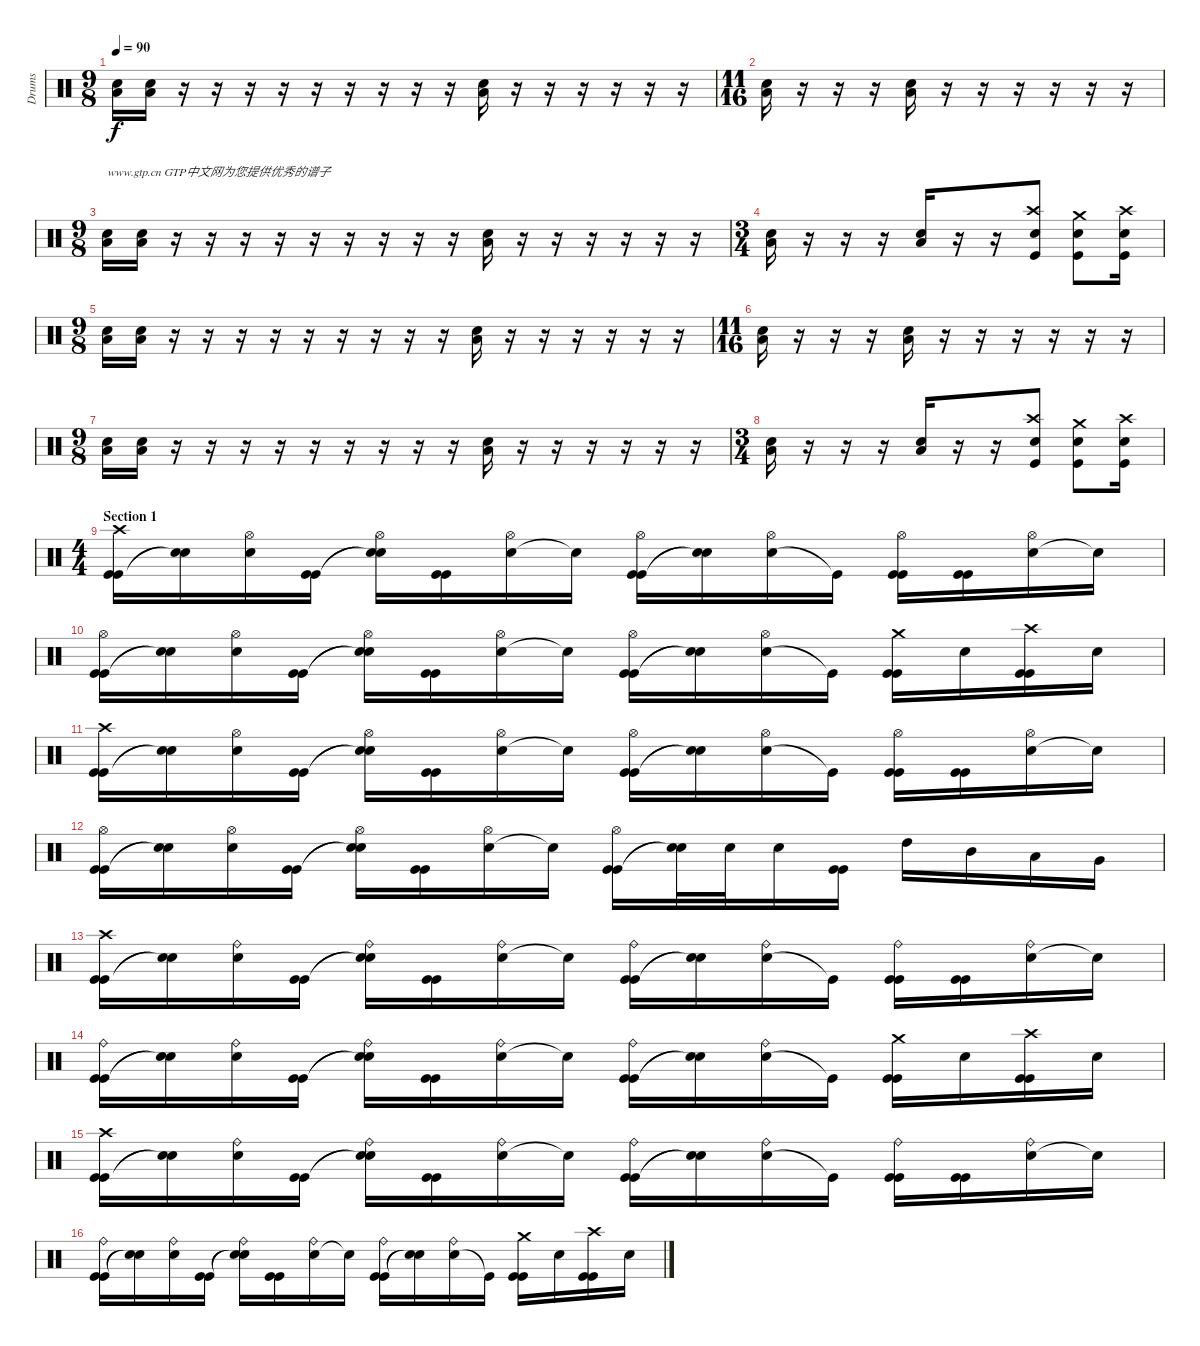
\track ("Drums" "Drums") {instrument percussion}
\staff {score}
\articulation defaults
\ts (9 8)
\tempo 90
\clef neutral
\ks c
("Snare (hit) 2" "Low Floor Tom (hit)").16{dy f} ("Snare (hit) 2" "Low Floor Tom (hit)").16 r.16 r.16 r.16 r.16 r.16 r.16 r.16 r.16 r.16 ("Snare (hit) 2" "Low Floor Tom (hit)").16 r.16 r.16 r.16 r.16 r.16 r.16 |
\ts (11 16)
("Snare (hit) 2" "Low Floor Tom (hit)").16 r.16 r.16 r.16 ("Snare (hit) 2" "Low Floor Tom (hit)").16 r.16 r.16 r.16 r.16 r.16 r.16 |
\ts (9 8)
("Snare (hit) 2" "Low Floor Tom (hit)").16{txt "www.gtp.cn GTP中文网为您提供优秀的谱子"} ("Snare (hit) 2" "Low Floor Tom (hit)").16 r.16 r.16 r.16 r.16 r.16 r.16 r.16 r.16 r.16 ("Snare (hit) 2" "Low Floor Tom (hit)").16 r.16 r.16 r.16 r.16 r.16 r.16 |
\ts (3 4)
("Low Floor Tom (hit)" "Snare (hit) 2").16 r.16 r.16 r.16 ("Low Floor Tom (hit)" "Snare (hit) 2").16 r.16 r.16 ("Crash high (hit)" "Snare (hit) 2" "Kick (hit)").8 ("Crash medium (hit)" "Snare (hit) 2" "Kick (hit)").8 ("Crash high (hit)" "Snare (hit) 2" "Kick (hit)").16 |
\ts (9 8)
("Snare (hit) 2" "Low Floor Tom (hit)").16 ("Snare (hit) 2" "Low Floor Tom (hit)").16 r.16 r.16 r.16 r.16 r.16 r.16 r.16 r.16 r.16 ("Snare (hit) 2" "Low Floor Tom (hit)").16 r.16 r.16 r.16 r.16 r.16 r.16 |
\ts (11 16)
("Snare (hit) 2" "Low Floor Tom (hit)").16 r.16 r.16 r.16 ("Snare (hit) 2" "Low Floor Tom (hit)").16 r.16 r.16 r.16 r.16 r.16 r.16 |
\ts (9 8)
("Snare (hit) 2" "Low Floor Tom (hit)").16 ("Snare (hit) 2" "Low Floor Tom (hit)").16 r.16 r.16 r.16 r.16 r.16 r.16 r.16 r.16 r.16 ("Snare (hit) 2" "Low Floor Tom (hit)").16 r.16 r.16 r.16 r.16 r.16 r.16 |
\ts (3 4)
("Low Floor Tom (hit)" "Snare (hit) 2").16 r.16 r.16 r.16 ("Low Floor Tom (hit)" "Snare (hit) 2").16 r.16 r.16 ("Crash high (hit)" "Snare (hit) 2" "Kick (hit)").8 ("Crash medium (hit)" "Snare (hit) 2" "Kick (hit)").8 ("Crash high (hit)" "Snare (hit) 2" "Kick (hit)").16 |
\ts (4 4)
\section ("" "Section 1")
("Kick (hit)" "Kick (hit)" "Crash high (hit)").16 ("Snare (hit) 2"{t} "Snare (hit)"{t}).16 ("Snare (hit) 2" "Hi-Hat (open)").16 ("Kick (hit)" "Kick (hit)").16 ("Snare (hit)"{t} "Snare (hit) 2"{t} "Hi-Hat (open)").16 ("Kick (hit)" "Kick (hit)").16 ("Snare (hit) 2" "Hi-Hat (open)").16 "Snare (hit)"{t}.16 ("Kick (hit)" "Kick (hit)" "Hi-Hat (open)").16 ("Snare (hit) 2"{t} "Snare (hit)"{t}).16 ("Snare (hit) 2" "Hi-Hat (open)").16 "Kick (hit)"{t}.16 ("Kick (hit)" "Kick (hit)" "Hi-Hat (open)").16 ("Kick (hit)" "Kick (hit)").16 ("Snare (hit) 2" "Hi-Hat (open)").16 "Snare (hit)"{t}.16 |
("Kick (hit)" "Kick (hit)" "Hi-Hat (open)").16 ("Snare (hit) 2"{t} "Snare (hit)"{t}).16 ("Snare (hit) 2" "Hi-Hat (open)").16 ("Kick (hit)" "Kick (hit)").16 ("Snare (hit)"{t} "Snare (hit) 2"{t} "Hi-Hat (open)").16 ("Kick (hit)" "Kick (hit)").16 ("Snare (hit) 2" "Hi-Hat (open)").16 "Snare (hit)"{t}.16 ("Kick (hit)" "Kick (hit)" "Hi-Hat (open)").16 ("Snare (hit) 2"{t} "Snare (hit)"{t}).16 ("Snare (hit) 2" "Hi-Hat (open)").16 "Kick (hit)"{t}.16 ("Kick (hit)" "Kick (hit)" "Crash medium (hit)").16 "Snare (hit) 2".16 ("Kick (hit)" "Kick (hit)" "Crash high (hit)").16 "Snare (hit) 2".16 |
("Kick (hit)" "Kick (hit)" "Crash high (hit)").16 ("Snare (hit) 2"{t} "Snare (hit)"{t}).16 ("Snare (hit) 2" "Hi-Hat (open)").16 ("Kick (hit)" "Kick (hit)").16 ("Snare (hit)"{t} "Snare (hit) 2"{t} "Hi-Hat (open)").16 ("Kick (hit)" "Kick (hit)").16 ("Snare (hit) 2" "Hi-Hat (open)").16 "Snare (hit)"{t}.16 ("Kick (hit)" "Kick (hit)" "Hi-Hat (open)").16 ("Snare (hit) 2"{t} "Snare (hit)"{t}).16 ("Snare (hit) 2" "Hi-Hat (open)").16 "Kick (hit)"{t}.16 ("Kick (hit)" "Kick (hit)" "Hi-Hat (open)").16 ("Kick (hit)" "Kick (hit)").16 ("Snare (hit) 2" "Hi-Hat (open)").16 "Snare (hit)"{t}.16 |
("Kick (hit)" "Kick (hit)" "Hi-Hat (open)").16 ("Snare (hit) 2"{t} "Snare (hit)"{t}).16 ("Snare (hit) 2" "Hi-Hat (open)").16 ("Kick (hit)" "Kick (hit)").16 ("Snare (hit)"{t} "Snare (hit) 2"{t} "Hi-Hat (open)").16 ("Kick (hit)" "Kick (hit)").16 ("Snare (hit) 2" "Hi-Hat (open)").16 "Snare (hit)"{t}.16 ("Kick (hit)" "Kick (hit)" "Hi-Hat (open)").16 ("Snare (hit) 2"{t} "Snare (hit) 2"{t}).32 "Snare (hit) 2".32 "Snare (hit) 2".16 ("Kick (hit)" "Kick (hit)").16 "High Tom (hit)".16 "Mid Tom (hit)".16 "Low Tom (hit)".16 "Very Low Tom (hit)".16 |
("Kick (hit)" "Kick (hit)" "Crash high (hit)").16 ("Snare (hit) 2"{t} "Snare (hit)"{t}).16 ("Snare (hit) 2" "Ride (bell)").16 ("Kick (hit)" "Kick (hit)").16 ("Snare (hit)"{t} "Snare (hit) 2"{t} "Ride (bell)").16 ("Kick (hit)" "Kick (hit)").16 ("Snare (hit) 2" "Ride (bell)").16 "Snare (hit)"{t}.16 ("Kick (hit)" "Kick (hit)" "Ride (bell)").16 ("Snare (hit) 2"{t} "Snare (hit)"{t}).16 ("Snare (hit) 2" "Ride (bell)").16 "Kick (hit)"{t}.16 ("Kick (hit)" "Kick (hit)" "Ride (bell)").16 ("Kick (hit)" "Kick (hit)").16 ("Snare (hit) 2" "Ride (bell)").16 "Snare (hit)"{t}.16 |
("Kick (hit)" "Kick (hit)" "Ride (bell)").16 ("Snare (hit) 2"{t} "Snare (hit)"{t}).16 ("Snare (hit) 2" "Ride (bell)").16 ("Kick (hit)" "Kick (hit)").16 ("Snare (hit)"{t} "Snare (hit) 2"{t} "Ride (bell)").16 ("Kick (hit)" "Kick (hit)").16 ("Snare (hit) 2" "Ride (bell)").16 "Snare (hit)"{t}.16 ("Kick (hit)" "Kick (hit)" "Ride (bell)").16 ("Snare (hit) 2"{t} "Snare (hit)"{t}).16 ("Snare (hit) 2" "Ride (bell)").16 "Kick (hit)"{t}.16 ("Kick (hit)" "Kick (hit)" "Crash medium (hit)").16 "Snare (hit) 2".16 ("Kick (hit)" "Kick (hit)" "Crash high (hit)").16 "Snare (hit) 2".16 |
("Kick (hit)" "Kick (hit)" "Crash high (hit)").16 ("Snare (hit) 2"{t} "Snare (hit)"{t}).16 ("Snare (hit) 2" "Ride (bell)").16 ("Kick (hit)" "Kick (hit)").16 ("Snare (hit)"{t} "Snare (hit) 2"{t} "Ride (bell)").16 ("Kick (hit)" "Kick (hit)").16 ("Snare (hit) 2" "Ride (bell)").16 "Snare (hit)"{t}.16 ("Kick (hit)" "Kick (hit)" "Ride (bell)").16 ("Snare (hit) 2"{t} "Snare (hit)"{t}).16 ("Snare (hit) 2" "Ride (bell)").16 "Kick (hit)"{t}.16 ("Kick (hit)" "Kick (hit)" "Ride (bell)").16 ("Kick (hit)" "Kick (hit)").16 ("Snare (hit) 2" "Ride (bell)").16 "Snare (hit)"{t}.16 |
("Kick (hit)" "Kick (hit)" "Ride (bell)").16 ("Snare (hit) 2"{t} "Snare (hit)"{t}).16 ("Snare (hit) 2" "Ride (bell)").16 ("Kick (hit)" "Kick (hit)").16 ("Snare (hit)"{t} "Snare (hit) 2"{t} "Ride (bell)").16 ("Kick (hit)" "Kick (hit)").16 ("Snare (hit) 2" "Ride (bell)").16 "Snare (hit)"{t}.16 ("Kick (hit)" "Kick (hit)" "Ride (bell)").16 ("Snare (hit) 2"{t} "Snare (hit)"{t}).16 ("Snare (hit) 2" "Ride (bell)").16 "Kick (hit)"{t}.16 ("Kick (hit)" "Kick (hit)" "Crash medium (hit)").16 "Snare (hit) 2".16 ("Kick (hit)" "Kick (hit)" "Crash high (hit)").16 "Snare (hit) 2".16
